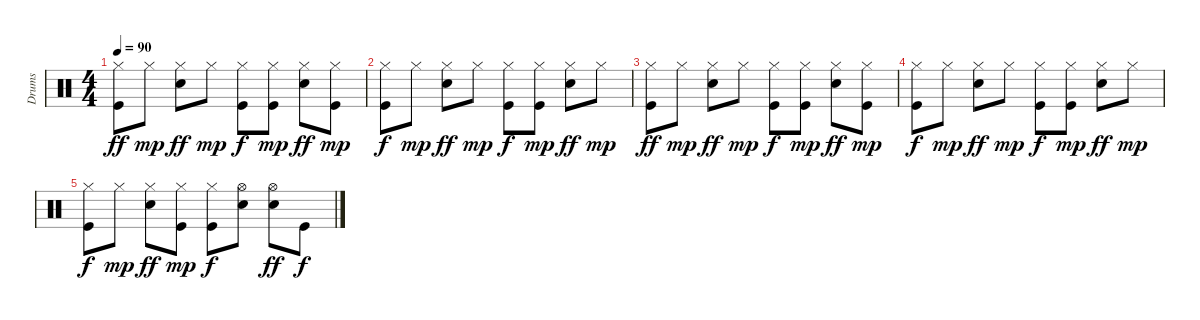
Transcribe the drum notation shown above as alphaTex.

\track ("Drums   " "Drums   ") {instrument percussion}
\staff {score}
\articulation defaults
\ts (4 4)
\tempo 90
\clef neutral
\ks c
("Kick (hit)" "Hi-Hat (closed)").8{dy ff} "Hi-Hat (closed)".8{dy mp} ("Snare (hit) 2" "Hi-Hat (closed)").8{dy ff} "Hi-Hat (closed)".8{dy mp} ("Kick (hit)" "Hi-Hat (closed)").8{dy f} ("Kick (hit)" "Hi-Hat (closed)").8{dy mp} ("Snare (hit) 2" "Hi-Hat (closed)").8{dy ff} ("Kick (hit)" "Hi-Hat (closed)").8{dy mp} |
("Kick (hit)" "Hi-Hat (closed)").8{dy f} "Hi-Hat (closed)".8{dy mp} ("Snare (hit) 2" "Hi-Hat (closed)").8{dy ff} "Hi-Hat (closed)".8{dy mp} ("Kick (hit)" "Hi-Hat (closed)").8{dy f} ("Kick (hit)" "Hi-Hat (closed)").8{dy mp} ("Snare (hit) 2" "Hi-Hat (closed)").8{dy ff} "Hi-Hat (closed)".8{dy mp} |
("Kick (hit)" "Hi-Hat (closed)").8{dy ff} "Hi-Hat (closed)".8{dy mp} ("Snare (hit) 2" "Hi-Hat (closed)").8{dy ff} "Hi-Hat (closed)".8{dy mp} ("Kick (hit)" "Hi-Hat (closed)").8{dy f} ("Kick (hit)" "Hi-Hat (closed)").8{dy mp} ("Snare (hit) 2" "Hi-Hat (closed)").8{dy ff} ("Kick (hit)" "Hi-Hat (closed)").8{dy mp} |
("Kick (hit)" "Hi-Hat (closed)").8{dy f} "Hi-Hat (closed)".8{dy mp} ("Snare (hit) 2" "Hi-Hat (closed)").8{dy ff} "Hi-Hat (closed)".8{dy mp} ("Kick (hit)" "Hi-Hat (closed)").8{dy f} ("Kick (hit)" "Hi-Hat (closed)").8{dy mp} ("Snare (hit) 2" "Hi-Hat (closed)").8{dy ff} "Hi-Hat (closed)".8{dy mp} |
("Kick (hit)" "Hi-Hat (closed)").8{dy f} "Hi-Hat (closed)".8{dy mp} ("Snare (hit) 2" "Hi-Hat (closed)").8{dy ff} ("Kick (hit)" "Hi-Hat (closed)").8{dy mp} ("Kick (hit)" "Hi-Hat (closed)").8{dy f} ("Snare (hit) 2" "Hi-Hat (open)").8 ("Snare (hit) 2" "Hi-Hat (open)").8{dy ff} "Kick (hit)".8{dy f}
